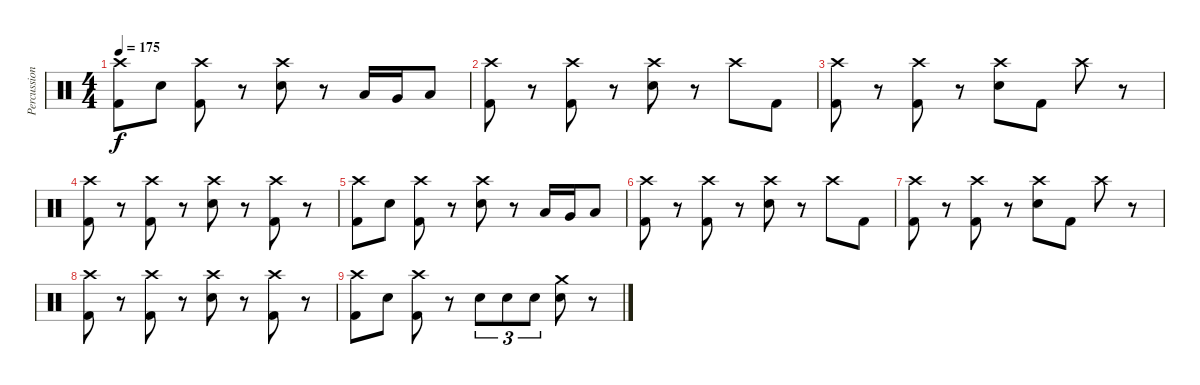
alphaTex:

\track ("Percussion" "Percussion") {instrument percussion}
\staff {score}
\articulation defaults
\ts (4 4)
\tempo 175
\clef neutral
\ks c
("Crash high (hit)" "Kick (hit) 2").8{dy f} "Snare (hit) 2".8 ("Crash high (hit)" "Kick (hit) 2").8 r.8 ("Crash high (hit)" "Snare (hit) 2").8 r.8 "Low Tom (hit)".16 "Very Low Tom (hit)".16 "Low Floor Tom (hit)".8 |
("Crash high (hit)" "Kick (hit) 2").8 r.8 ("Crash high (hit)" "Kick (hit) 2").8 r.8 ("Crash high (hit)" "Snare (hit) 2").8 r.8 "Crash high (hit)".8 "Kick (hit) 2".8 |
("Crash high (hit)" "Kick (hit) 2").8 r.8 ("Crash high (hit)" "Kick (hit) 2").8 r.8 ("Crash high (hit)" "Snare (hit) 2").8 "Kick (hit) 2".8 "Crash high (hit)".8 r.8 |
("Crash high (hit)" "Kick (hit) 2").8 r.8 ("Crash high (hit)" "Kick (hit) 2").8 r.8 ("Crash high (hit)" "Snare (hit) 2").8 r.8 ("Crash high (hit)" "Kick (hit) 2").8 r.8 |
("Crash high (hit)" "Kick (hit) 2").8 "Snare (hit) 2".8 ("Crash high (hit)" "Kick (hit) 2").8 r.8 ("Crash high (hit)" "Snare (hit) 2").8 r.8 "Low Tom (hit)".16 "Very Low Tom (hit)".16 "Low Floor Tom (hit)".8 |
("Crash high (hit)" "Kick (hit) 2").8 r.8 ("Crash high (hit)" "Kick (hit) 2").8 r.8 ("Crash high (hit)" "Snare (hit) 2").8 r.8 "Crash high (hit)".8 "Kick (hit) 2".8 |
("Crash high (hit)" "Kick (hit) 2").8 r.8 ("Crash high (hit)" "Kick (hit) 2").8 r.8 ("Crash high (hit)" "Snare (hit) 2").8 "Kick (hit) 2".8 "Crash high (hit)".8 r.8 |
("Crash high (hit)" "Kick (hit) 2").8 r.8 ("Crash high (hit)" "Kick (hit) 2").8 r.8 ("Crash high (hit)" "Snare (hit) 2").8 r.8 ("Crash high (hit)" "Kick (hit) 2").8 r.8 |
("Crash high (hit)" "Kick (hit) 2").8 "Snare (hit) 2".8 ("Crash high (hit)" "Kick (hit) 2").8 r.8 "Snare (hit) 2".8{tu (3 2)} "Snare (hit) 2".8{tu (3 2)} "Snare (hit) 2".8{tu (3 2)} ("Crash medium (hit)" "Snare (hit) 2").8 r.8
